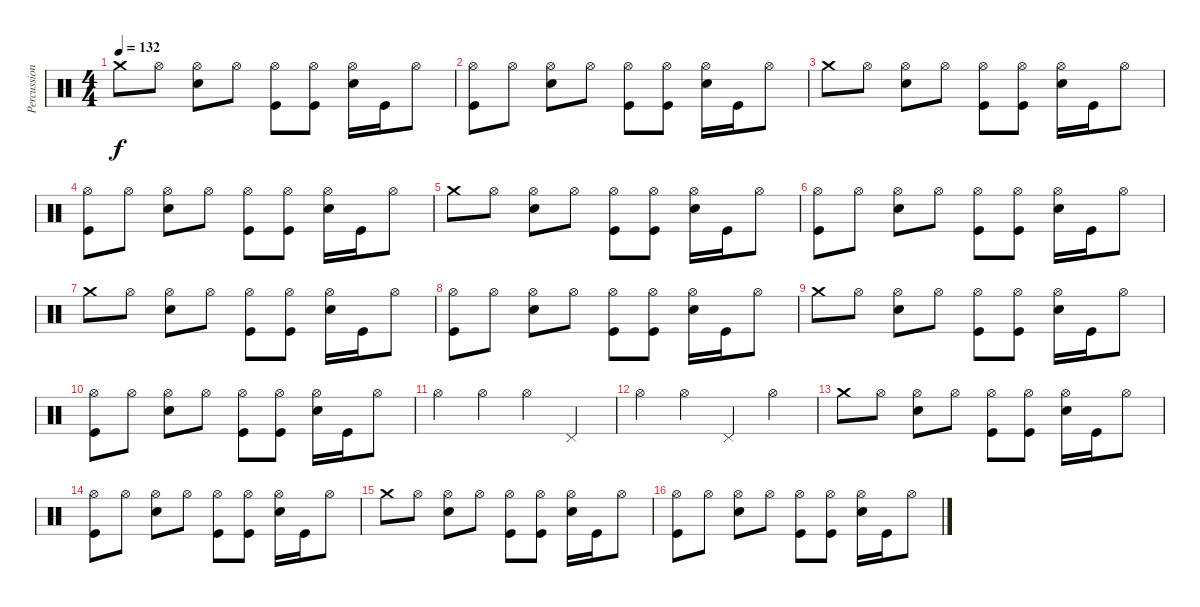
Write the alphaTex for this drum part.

\track ("Percussions" "Percussion") {instrument percussion}
\staff {score}
\articulation defaults
\ts (4 4)
\tempo 132
\clef neutral
\ks c "Crash medium (hit)".8{dy f} "Hi-Hat (open)".8
("Hi-Hat (open)" "Electric Snare (hit)").8 "Hi-Hat (open)".8 ("Hi-Hat (open)" "Kick (hit)").8 ("Hi-Hat (open)" "Kick (hit)").8 ("Hi-Hat (open)" "Electric Snare (hit)").16 "Kick (hit)".16 "Hi-Hat (open)".8 |
("Hi-Hat (open)" "Kick (hit)").8 "Hi-Hat (open)".8 ("Hi-Hat (open)" "Electric Snare (hit)").8 "Hi-Hat (open)".8 ("Hi-Hat (open)" "Kick (hit)").8 ("Hi-Hat (open)" "Kick (hit)").8 ("Hi-Hat (open)" "Electric Snare (hit)").16 "Kick (hit)".16 "Hi-Hat (open)".8 |
"Crash medium (hit)".8 "Hi-Hat (open)".8 ("Hi-Hat (open)" "Electric Snare (hit)").8 "Hi-Hat (open)".8 ("Hi-Hat (open)" "Kick (hit)").8 ("Hi-Hat (open)" "Kick (hit)").8 ("Hi-Hat (open)" "Electric Snare (hit)").16 "Kick (hit)".16 "Hi-Hat (open)".8 |
("Hi-Hat (open)" "Kick (hit)").8 "Hi-Hat (open)".8 ("Hi-Hat (open)" "Electric Snare (hit)").8 "Hi-Hat (open)".8 ("Hi-Hat (open)" "Kick (hit)").8 ("Hi-Hat (open)" "Kick (hit)").8 ("Hi-Hat (open)" "Electric Snare (hit)").16 "Kick (hit)".16 "Hi-Hat (open)".8 |
"Crash medium (hit)".8 "Hi-Hat (open)".8 ("Hi-Hat (open)" "Electric Snare (hit)").8 "Hi-Hat (open)".8 ("Hi-Hat (open)" "Kick (hit)").8 ("Hi-Hat (open)" "Kick (hit)").8 ("Hi-Hat (open)" "Electric Snare (hit)").16 "Kick (hit)".16 "Hi-Hat (open)".8 |
("Hi-Hat (open)" "Kick (hit)").8 "Hi-Hat (open)".8 ("Hi-Hat (open)" "Electric Snare (hit)").8 "Hi-Hat (open)".8 ("Hi-Hat (open)" "Kick (hit)").8 ("Hi-Hat (open)" "Kick (hit)").8 ("Hi-Hat (open)" "Electric Snare (hit)").16 "Kick (hit)".16 "Hi-Hat (open)".8 |
"Crash medium (hit)".8 "Hi-Hat (open)".8 ("Hi-Hat (open)" "Electric Snare (hit)").8 "Hi-Hat (open)".8 ("Hi-Hat (open)" "Kick (hit)").8 ("Hi-Hat (open)" "Kick (hit)").8 ("Hi-Hat (open)" "Electric Snare (hit)").16 "Kick (hit)".16 "Hi-Hat (open)".8 |
("Hi-Hat (open)" "Kick (hit)").8 "Hi-Hat (open)".8 ("Hi-Hat (open)" "Electric Snare (hit)").8 "Hi-Hat (open)".8 ("Hi-Hat (open)" "Kick (hit)").8 ("Hi-Hat (open)" "Kick (hit)").8 ("Hi-Hat (open)" "Electric Snare (hit)").16 "Kick (hit)".16 "Hi-Hat (open)".8 |
"Crash medium (hit)".8 "Hi-Hat (open)".8 ("Hi-Hat (open)" "Electric Snare (hit)").8 "Hi-Hat (open)".8 ("Hi-Hat (open)" "Kick (hit)").8 ("Hi-Hat (open)" "Kick (hit)").8 ("Hi-Hat (open)" "Electric Snare (hit)").16 "Kick (hit)".16 "Hi-Hat (open)".8 |
("Hi-Hat (open)" "Kick (hit)").8 "Hi-Hat (open)".8 ("Hi-Hat (open)" "Electric Snare (hit)").8 "Hi-Hat (open)".8 ("Hi-Hat (open)" "Kick (hit)").8 ("Hi-Hat (open)" "Kick (hit)").8 ("Hi-Hat (open)" "Electric Snare (hit)").16 "Kick (hit)".16 "Hi-Hat (open)".8 |
"Hi-Hat (open)".4 "Hi-Hat (open)".4 "Hi-Hat (open)".4 "Pedal Hi-Hat (hit)".4 |
"Hi-Hat (open)".4 "Hi-Hat (open)".4 "Pedal Hi-Hat (hit)".4 "Hi-Hat (open)".4 |
"Crash medium (hit)".8 "Hi-Hat (open)".8 ("Hi-Hat (open)" "Electric Snare (hit)").8 "Hi-Hat (open)".8 ("Hi-Hat (open)" "Kick (hit)").8 ("Hi-Hat (open)" "Kick (hit)").8 ("Hi-Hat (open)" "Electric Snare (hit)").16 "Kick (hit)".16 "Hi-Hat (open)".8 |
("Hi-Hat (open)" "Kick (hit)").8 "Hi-Hat (open)".8 ("Hi-Hat (open)" "Electric Snare (hit)").8 "Hi-Hat (open)".8 ("Hi-Hat (open)" "Kick (hit)").8 ("Hi-Hat (open)" "Kick (hit)").8 ("Hi-Hat (open)" "Electric Snare (hit)").16 "Kick (hit)".16 "Hi-Hat (open)".8 |
"Crash medium (hit)".8 "Hi-Hat (open)".8 ("Hi-Hat (open)" "Electric Snare (hit)").8 "Hi-Hat (open)".8 ("Hi-Hat (open)" "Kick (hit)").8 ("Hi-Hat (open)" "Kick (hit)").8 ("Hi-Hat (open)" "Electric Snare (hit)").16 "Kick (hit)".16 "Hi-Hat (open)".8 |
("Hi-Hat (open)" "Kick (hit)").8 "Hi-Hat (open)".8 ("Hi-Hat (open)" "Electric Snare (hit)").8 "Hi-Hat (open)".8 ("Hi-Hat (open)" "Kick (hit)").8 ("Hi-Hat (open)" "Kick (hit)").8 ("Hi-Hat (open)" "Electric Snare (hit)").16 "Kick (hit)".16 "Hi-Hat (open)".8
